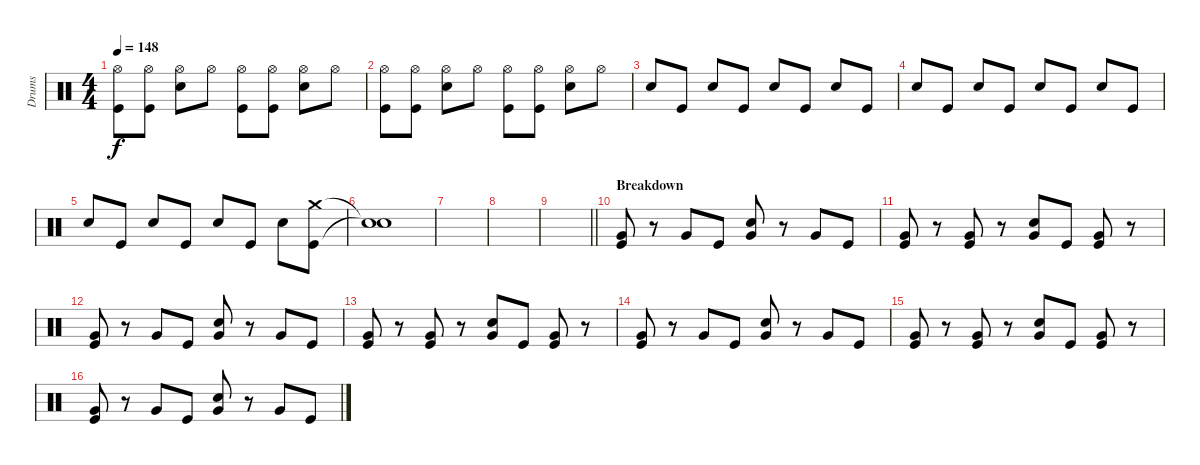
\track ("Drums" "Drums") {instrument percussion}
\staff {score}
\articulation defaults
\ts (4 4)
\tempo 148
\clef neutral
\ks c
("Hi-Hat (open)" "Kick (hit)").8{dy f} ("Hi-Hat (open)" "Kick (hit)").8 ("Hi-Hat (open)" "Electric Snare (hit)").8 "Hi-Hat (open)".8 ("Hi-Hat (open)" "Kick (hit)").8 ("Hi-Hat (open)" "Kick (hit)").8 ("Hi-Hat (open)" "Electric Snare (hit)").8 "Hi-Hat (open)".8 |
("Hi-Hat (open)" "Kick (hit)").8 ("Hi-Hat (open)" "Kick (hit)").8 ("Hi-Hat (open)" "Electric Snare (hit)").8 "Hi-Hat (open)".8 ("Hi-Hat (open)" "Kick (hit)").8 ("Hi-Hat (open)" "Kick (hit)").8 ("Hi-Hat (open)" "Electric Snare (hit)").8 "Hi-Hat (open)".8 |
"Electric Snare (hit)".8 "Kick (hit)".8 "Electric Snare (hit)".8 "Kick (hit)".8 "Electric Snare (hit)".8 "Kick (hit)".8 "Electric Snare (hit)".8 "Kick (hit)".8 |
"Electric Snare (hit)".8 "Kick (hit)".8 "Electric Snare (hit)".8 "Kick (hit)".8 "Electric Snare (hit)".8 "Kick (hit)".8 "Electric Snare (hit)".8 "Kick (hit)".8 |
"Electric Snare (hit)".8 "Kick (hit)".8 "Electric Snare (hit)".8 "Kick (hit)".8 "Electric Snare (hit)".8 "Kick (hit)".8 "Electric Snare (hit)".8 ("Crash medium (hit)" "Kick (hit)").8 |
("Snare (hit)"{t} "Snare (hit)"{t}).1 |
|
|
\barLineRight lightlight
|
\section ("" "Breakdown")
("Very Low Tom (hit)" "Kick (hit)").8 r.8 "Very Low Tom (hit)".8 "Kick (hit)".8 ("Very Low Tom (hit)" "Electric Snare (hit)").8 r.8 "Very Low Tom (hit)".8 "Kick (hit)".8 |
("Very Low Tom (hit)" "Kick (hit)").8 r.8 ("Very Low Tom (hit)" "Kick (hit)").8 r.8 ("Very Low Tom (hit)" "Electric Snare (hit)").8 "Kick (hit)".8 ("Very Low Tom (hit)" "Kick (hit)").8 r.8 |
("Very Low Tom (hit)" "Kick (hit)").8 r.8 "Very Low Tom (hit)".8 "Kick (hit)".8 ("Very Low Tom (hit)" "Electric Snare (hit)").8 r.8 "Very Low Tom (hit)".8 "Kick (hit)".8 |
("Very Low Tom (hit)" "Kick (hit)").8 r.8 ("Very Low Tom (hit)" "Kick (hit)").8 r.8 ("Very Low Tom (hit)" "Electric Snare (hit)").8 "Kick (hit)".8 ("Very Low Tom (hit)" "Kick (hit)").8 r.8 |
("Very Low Tom (hit)" "Kick (hit)").8 r.8 "Very Low Tom (hit)".8 "Kick (hit)".8 ("Very Low Tom (hit)" "Electric Snare (hit)").8 r.8 "Very Low Tom (hit)".8 "Kick (hit)".8 |
("Very Low Tom (hit)" "Kick (hit)").8 r.8 ("Very Low Tom (hit)" "Kick (hit)").8 r.8 ("Very Low Tom (hit)" "Electric Snare (hit)").8 "Kick (hit)".8 ("Very Low Tom (hit)" "Kick (hit)").8 r.8 |
("Very Low Tom (hit)" "Kick (hit)").8 r.8 "Very Low Tom (hit)".8 "Kick (hit)".8 ("Very Low Tom (hit)" "Electric Snare (hit)").8 r.8 "Very Low Tom (hit)".8 "Kick (hit)".8
